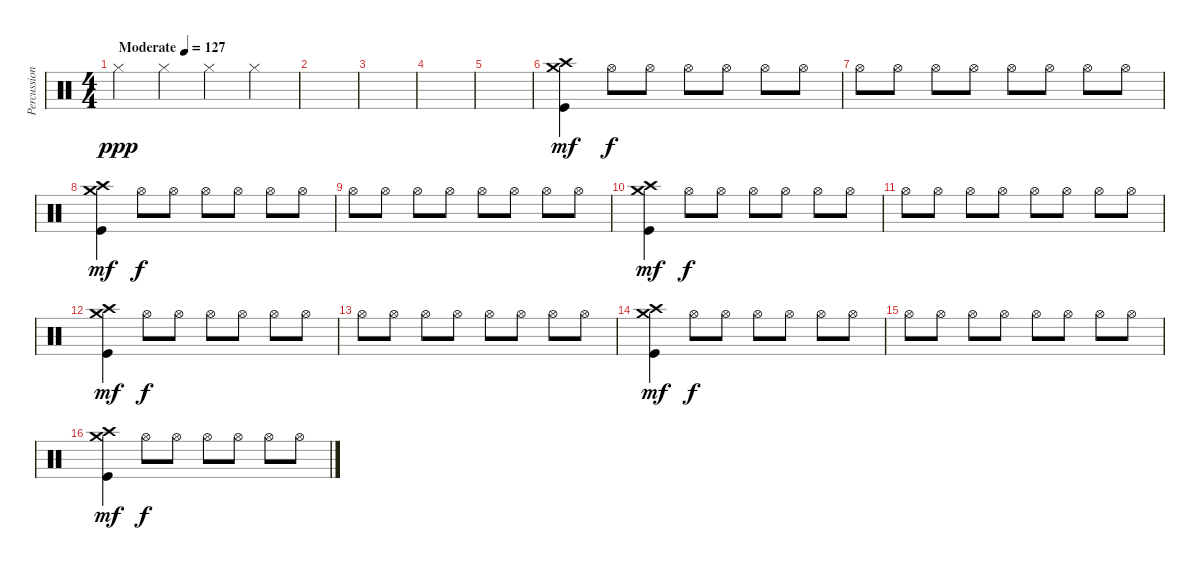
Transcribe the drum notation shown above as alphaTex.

\track ("Percussion" "Percussion") {instrument percussion}
\staff {score}
\articulation defaults
\ts (4 4)
\tempo (127 "Moderate")
\clef neutral
\ks c "Hi-Hat (closed)".4{dy ppp volume 3} "Hi-Hat (closed)".4 "Hi-Hat (closed)".4 "Hi-Hat (closed)".4
|
|
|
|
|
("Crash medium (hit)" "Crash high (hit)" "Kick (hit)").4{dy mf volume 12} "Hi-Hat (open)".8{dy f} "Hi-Hat (open)".8 "Hi-Hat (open)".8 "Hi-Hat (open)".8 "Hi-Hat (open)".8 "Hi-Hat (open)".8 |
"Hi-Hat (open)".8 "Hi-Hat (open)".8 "Hi-Hat (open)".8 "Hi-Hat (open)".8 "Hi-Hat (open)".8 "Hi-Hat (open)".8 "Hi-Hat (open)".8 "Hi-Hat (open)".8 |
("Crash medium (hit)" "Crash high (hit)" "Kick (hit)").4{dy mf volume 12} "Hi-Hat (open)".8{dy f} "Hi-Hat (open)".8 "Hi-Hat (open)".8 "Hi-Hat (open)".8 "Hi-Hat (open)".8 "Hi-Hat (open)".8 |
"Hi-Hat (open)".8 "Hi-Hat (open)".8 "Hi-Hat (open)".8 "Hi-Hat (open)".8 "Hi-Hat (open)".8 "Hi-Hat (open)".8 "Hi-Hat (open)".8 "Hi-Hat (open)".8 |
("Crash medium (hit)" "Crash high (hit)" "Kick (hit)").4{dy mf volume 12} "Hi-Hat (open)".8{dy f} "Hi-Hat (open)".8 "Hi-Hat (open)".8 "Hi-Hat (open)".8 "Hi-Hat (open)".8 "Hi-Hat (open)".8 |
"Hi-Hat (open)".8 "Hi-Hat (open)".8 "Hi-Hat (open)".8 "Hi-Hat (open)".8 "Hi-Hat (open)".8 "Hi-Hat (open)".8 "Hi-Hat (open)".8 "Hi-Hat (open)".8 |
("Crash medium (hit)" "Crash high (hit)" "Kick (hit)").4{dy mf volume 12} "Hi-Hat (open)".8{dy f} "Hi-Hat (open)".8 "Hi-Hat (open)".8 "Hi-Hat (open)".8 "Hi-Hat (open)".8 "Hi-Hat (open)".8 |
"Hi-Hat (open)".8 "Hi-Hat (open)".8 "Hi-Hat (open)".8 "Hi-Hat (open)".8 "Hi-Hat (open)".8 "Hi-Hat (open)".8 "Hi-Hat (open)".8 "Hi-Hat (open)".8 |
("Crash medium (hit)" "Crash high (hit)" "Kick (hit)").4{dy mf volume 12} "Hi-Hat (open)".8{dy f} "Hi-Hat (open)".8 "Hi-Hat (open)".8 "Hi-Hat (open)".8 "Hi-Hat (open)".8 "Hi-Hat (open)".8 |
"Hi-Hat (open)".8 "Hi-Hat (open)".8 "Hi-Hat (open)".8 "Hi-Hat (open)".8 "Hi-Hat (open)".8 "Hi-Hat (open)".8 "Hi-Hat (open)".8 "Hi-Hat (open)".8 |
("Crash medium (hit)" "Crash high (hit)" "Kick (hit)").4{dy mf volume 12} "Hi-Hat (open)".8{dy f} "Hi-Hat (open)".8 "Hi-Hat (open)".8 "Hi-Hat (open)".8 "Hi-Hat (open)".8 "Hi-Hat (open)".8
